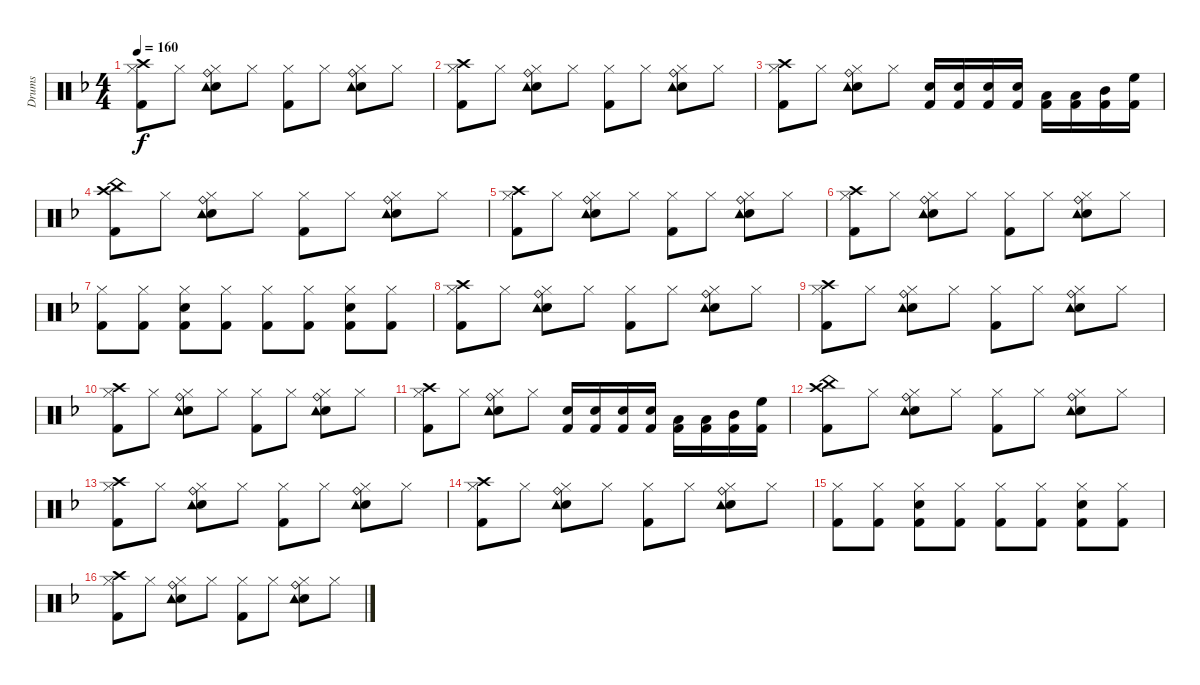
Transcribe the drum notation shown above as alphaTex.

\track ("Drums" "Drums") {instrument percussion}
\staff {score}
\articulation defaults
\ts (4 4)
\tempo 160
\clef neutral
\ks dminor
("Hi-Hat (closed)" "Crash high (hit)" "Kick (hit) 2").8{dy f} "Hi-Hat (closed)".8 ("Hi-Hat (closed)" "Electric Snare (hit)" "Tambourine (hit)" "Ride (bell)").8 "Hi-Hat (closed)".8 ("Hi-Hat (closed)" "Kick (hit) 2").8 "Hi-Hat (closed)".8 ("Hi-Hat (closed)" "Electric Snare (hit)" "Tambourine (hit)" "Ride (bell)").8 "Hi-Hat (closed)".8 |
("Hi-Hat (closed)" "Crash high (hit)" "Kick (hit) 2").8 "Hi-Hat (closed)".8 ("Hi-Hat (closed)" "Electric Snare (hit)" "Tambourine (hit)" "Ride (bell)").8 "Hi-Hat (closed)".8 ("Hi-Hat (closed)" "Kick (hit) 2").8 "Hi-Hat (closed)".8 ("Hi-Hat (closed)" "Electric Snare (hit)" "Tambourine (hit)" "Ride (bell)").8 "Hi-Hat (closed)".8 |
("Hi-Hat (closed)" "Crash high (hit)" "Kick (hit) 2").8 "Hi-Hat (closed)".8 ("Hi-Hat (closed)" "Electric Snare (hit)" "Tambourine (hit)" "Ride (bell)").8 "Hi-Hat (closed)".8 ("Snare (hit) 2" "Kick (hit) 2").16 ("Snare (hit) 2" "Kick (hit) 2").16 ("Snare (hit) 2" "Kick (hit) 2").16 ("Snare (hit) 2" "Kick (hit) 2").16 ("Low Floor Tom (hit)" "Kick (hit) 2").16 ("Low Tom (hit)" "Kick (hit) 2").16 ("Mid Tom (hit)" "Kick (hit) 2").16 ("High Floor Tom (hit)" "Kick (hit) 2").16 |
("China (hit)" "Crash high (hit)" "Kick (hit) 2").8 "Hi-Hat (closed)".8 ("Hi-Hat (closed)" "Electric Snare (hit)" "Tambourine (hit)" "Ride (bell)").8 "Hi-Hat (closed)".8 ("Hi-Hat (closed)" "Kick (hit) 2").8 "Hi-Hat (closed)".8 ("Hi-Hat (closed)" "Electric Snare (hit)" "Tambourine (hit)" "Ride (bell)").8 "Hi-Hat (closed)".8 |
("Hi-Hat (closed)" "Crash high (hit)" "Kick (hit) 2").8 "Hi-Hat (closed)".8 ("Hi-Hat (closed)" "Electric Snare (hit)" "Tambourine (hit)" "Ride (bell)").8 "Hi-Hat (closed)".8 ("Hi-Hat (closed)" "Kick (hit) 2").8 "Hi-Hat (closed)".8 ("Hi-Hat (closed)" "Electric Snare (hit)" "Tambourine (hit)" "Ride (bell)").8 "Hi-Hat (closed)".8 |
("Hi-Hat (closed)" "Crash high (hit)" "Kick (hit) 2").8 "Hi-Hat (closed)".8 ("Hi-Hat (closed)" "Electric Snare (hit)" "Tambourine (hit)" "Ride (bell)").8 "Hi-Hat (closed)".8 ("Hi-Hat (closed)" "Kick (hit) 2").8 "Hi-Hat (closed)".8 ("Hi-Hat (closed)" "Electric Snare (hit)" "Tambourine (hit)" "Ride (bell)").8 "Hi-Hat (closed)".8 |
("Hi-Hat (closed)" "Kick (hit) 2").8 ("Hi-Hat (closed)" "Kick (hit) 2").8 ("Hi-Hat (closed)" "Electric Snare (hit)" "Kick (hit) 2").8 ("Hi-Hat (closed)" "Kick (hit) 2").8 ("Hi-Hat (closed)" "Kick (hit) 2").8 ("Hi-Hat (closed)" "Kick (hit) 2").8 ("Hi-Hat (closed)" "Electric Snare (hit)" "Kick (hit) 2").8 ("Hi-Hat (closed)" "Kick (hit) 2").8 |
("Hi-Hat (closed)" "Crash high (hit)" "Kick (hit) 2").8 "Hi-Hat (closed)".8 ("Hi-Hat (closed)" "Electric Snare (hit)" "Tambourine (hit)" "Ride (bell)").8 "Hi-Hat (closed)".8 ("Hi-Hat (closed)" "Kick (hit) 2").8 "Hi-Hat (closed)".8 ("Hi-Hat (closed)" "Electric Snare (hit)" "Tambourine (hit)" "Ride (bell)").8 "Hi-Hat (closed)".8 |
("Hi-Hat (closed)" "Crash high (hit)" "Kick (hit) 2").8 "Hi-Hat (closed)".8 ("Hi-Hat (closed)" "Electric Snare (hit)" "Tambourine (hit)" "Ride (bell)").8 "Hi-Hat (closed)".8 ("Hi-Hat (closed)" "Kick (hit) 2").8 "Hi-Hat (closed)".8 ("Hi-Hat (closed)" "Electric Snare (hit)" "Tambourine (hit)" "Ride (bell)").8 "Hi-Hat (closed)".8 |
("Hi-Hat (closed)" "Crash high (hit)" "Kick (hit) 2").8 "Hi-Hat (closed)".8 ("Hi-Hat (closed)" "Electric Snare (hit)" "Tambourine (hit)" "Ride (bell)").8 "Hi-Hat (closed)".8 ("Hi-Hat (closed)" "Kick (hit) 2").8 "Hi-Hat (closed)".8 ("Hi-Hat (closed)" "Electric Snare (hit)" "Tambourine (hit)" "Ride (bell)").8 "Hi-Hat (closed)".8 |
("Hi-Hat (closed)" "Crash high (hit)" "Kick (hit) 2").8 "Hi-Hat (closed)".8 ("Hi-Hat (closed)" "Electric Snare (hit)" "Tambourine (hit)" "Ride (bell)").8 "Hi-Hat (closed)".8 ("Snare (hit) 2" "Kick (hit) 2").16 ("Snare (hit) 2" "Kick (hit) 2").16 ("Snare (hit) 2" "Kick (hit) 2").16 ("Snare (hit) 2" "Kick (hit) 2").16 ("Low Floor Tom (hit)" "Kick (hit) 2").16 ("Low Tom (hit)" "Kick (hit) 2").16 ("Mid Tom (hit)" "Kick (hit) 2").16 ("High Floor Tom (hit)" "Kick (hit) 2").16 |
("China (hit)" "Crash high (hit)" "Kick (hit) 2").8 "Hi-Hat (closed)".8 ("Hi-Hat (closed)" "Electric Snare (hit)" "Tambourine (hit)" "Ride (bell)").8 "Hi-Hat (closed)".8 ("Hi-Hat (closed)" "Kick (hit) 2").8 "Hi-Hat (closed)".8 ("Hi-Hat (closed)" "Electric Snare (hit)" "Tambourine (hit)" "Ride (bell)").8 "Hi-Hat (closed)".8 |
("Hi-Hat (closed)" "Crash high (hit)" "Kick (hit) 2").8 "Hi-Hat (closed)".8 ("Hi-Hat (closed)" "Electric Snare (hit)" "Tambourine (hit)" "Ride (bell)").8 "Hi-Hat (closed)".8 ("Hi-Hat (closed)" "Kick (hit) 2").8 "Hi-Hat (closed)".8 ("Hi-Hat (closed)" "Electric Snare (hit)" "Tambourine (hit)" "Ride (bell)").8 "Hi-Hat (closed)".8 |
("Hi-Hat (closed)" "Crash high (hit)" "Kick (hit) 2").8 "Hi-Hat (closed)".8 ("Hi-Hat (closed)" "Electric Snare (hit)" "Tambourine (hit)" "Ride (bell)").8 "Hi-Hat (closed)".8 ("Hi-Hat (closed)" "Kick (hit) 2").8 "Hi-Hat (closed)".8 ("Hi-Hat (closed)" "Electric Snare (hit)" "Tambourine (hit)" "Ride (bell)").8 "Hi-Hat (closed)".8 |
("Hi-Hat (closed)" "Kick (hit) 2").8 ("Hi-Hat (closed)" "Kick (hit) 2").8 ("Hi-Hat (closed)" "Electric Snare (hit)" "Kick (hit) 2").8 ("Hi-Hat (closed)" "Kick (hit) 2").8 ("Hi-Hat (closed)" "Kick (hit) 2").8 ("Hi-Hat (closed)" "Kick (hit) 2").8 ("Hi-Hat (closed)" "Electric Snare (hit)" "Kick (hit) 2").8 ("Hi-Hat (closed)" "Kick (hit) 2").8 |
("Hi-Hat (closed)" "Crash high (hit)" "Kick (hit) 2").8 "Hi-Hat (closed)".8 ("Hi-Hat (closed)" "Electric Snare (hit)" "Tambourine (hit)" "Ride (bell)").8 "Hi-Hat (closed)".8 ("Hi-Hat (closed)" "Kick (hit) 2").8 "Hi-Hat (closed)".8 ("Hi-Hat (closed)" "Electric Snare (hit)" "Tambourine (hit)" "Ride (bell)").8 "Hi-Hat (closed)".8
